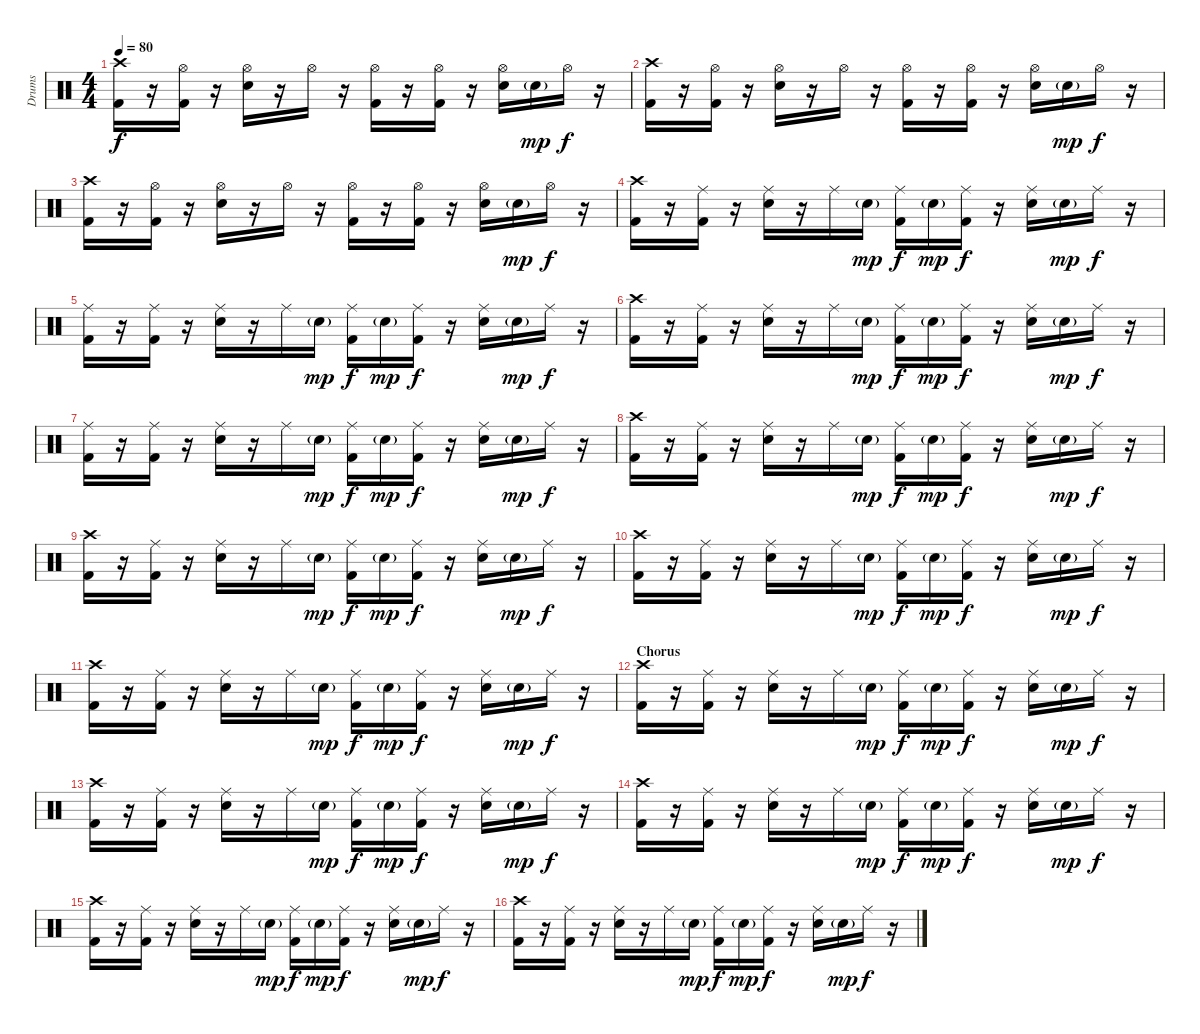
\track ("Drums" "Drums") {instrument percussion}
\staff {score}
\articulation defaults
\ts (4 4)
\tempo 80
\clef neutral
\ks c
("Crash high (hit)" "Kick (hit) 2").16{dy f} r.16 ("Hi-Hat (open)" "Kick (hit) 2").16 r.16 ("Hi-Hat (open)" "Electric Snare (hit)").16 r.16 "Hi-Hat (open)".16 r.16 ("Hi-Hat (open)" "Kick (hit) 2").16 r.16 ("Hi-Hat (open)" "Kick (hit) 2").16 r.16 ("Hi-Hat (open)" "Electric Snare (hit)").16 "Electric Snare (hit)"{g}.16{dy mp} "Hi-Hat (open)".16{dy f} r.16 |
("Crash high (hit)" "Kick (hit) 2").16 r.16 ("Hi-Hat (open)" "Kick (hit) 2").16 r.16 ("Hi-Hat (open)" "Electric Snare (hit)").16 r.16 "Hi-Hat (open)".16 r.16 ("Hi-Hat (open)" "Kick (hit) 2").16 r.16 ("Hi-Hat (open)" "Kick (hit) 2").16 r.16 ("Hi-Hat (open)" "Electric Snare (hit)").16 "Electric Snare (hit)"{g}.16{dy mp} "Hi-Hat (open)".16{dy f} r.16 |
("Crash high (hit)" "Kick (hit) 2").16 r.16 ("Hi-Hat (open)" "Kick (hit) 2").16 r.16 ("Hi-Hat (open)" "Electric Snare (hit)").16 r.16 "Hi-Hat (open)".16 r.16 ("Hi-Hat (open)" "Kick (hit) 2").16 r.16 ("Hi-Hat (open)" "Kick (hit) 2").16 r.16 ("Hi-Hat (open)" "Electric Snare (hit)").16 "Electric Snare (hit)"{g}.16{dy mp} "Hi-Hat (open)".16{dy f} r.16 |
("Crash high (hit)" "Kick (hit) 2").16 r.16 ("Ride (middle)" "Kick (hit) 2").16 r.16 ("Ride (middle)" "Electric Snare (hit)").16 r.16 "Ride (middle)".16 "Electric Snare (hit)"{g}.16{dy mp} ("Ride (middle)" "Kick (hit) 2").16{dy f} "Electric Snare (hit)"{g}.16{dy mp} ("Ride (middle)" "Kick (hit) 2").16{dy f} r.16 ("Ride (middle)" "Electric Snare (hit)").16 "Electric Snare (hit)"{g}.16{dy mp} "Ride (middle)".16{dy f} r.16 |
("Ride (middle)" "Kick (hit) 2").16 r.16 ("Ride (middle)" "Kick (hit) 2").16 r.16 ("Ride (middle)" "Electric Snare (hit)").16 r.16 "Ride (middle)".16 "Electric Snare (hit)"{g}.16{dy mp} ("Ride (middle)" "Kick (hit) 2").16{dy f} "Electric Snare (hit)"{g}.16{dy mp} ("Ride (middle)" "Kick (hit) 2").16{dy f} r.16 ("Ride (middle)" "Electric Snare (hit)").16 "Electric Snare (hit)"{g}.16{dy mp} "Ride (middle)".16{dy f} r.16 |
("Crash high (hit)" "Kick (hit) 2").16 r.16 ("Ride (middle)" "Kick (hit) 2").16 r.16 ("Ride (middle)" "Electric Snare (hit)").16 r.16 "Ride (middle)".16 "Electric Snare (hit)"{g}.16{dy mp} ("Ride (middle)" "Kick (hit) 2").16{dy f} "Electric Snare (hit)"{g}.16{dy mp} ("Ride (middle)" "Kick (hit) 2").16{dy f} r.16 ("Ride (middle)" "Electric Snare (hit)").16 "Electric Snare (hit)"{g}.16{dy mp} "Ride (middle)".16{dy f} r.16 |
("Ride (middle)" "Kick (hit) 2").16 r.16 ("Ride (middle)" "Kick (hit) 2").16 r.16 ("Ride (middle)" "Electric Snare (hit)").16 r.16 "Ride (middle)".16 "Electric Snare (hit)"{g}.16{dy mp} ("Ride (middle)" "Kick (hit) 2").16{dy f} "Electric Snare (hit)"{g}.16{dy mp} ("Ride (middle)" "Kick (hit) 2").16{dy f} r.16 ("Ride (middle)" "Electric Snare (hit)").16 "Electric Snare (hit)"{g}.16{dy mp} "Ride (middle)".16{dy f} r.16 |
("Crash high (hit)" "Kick (hit) 2").16 r.16 ("Ride (middle)" "Kick (hit) 2").16 r.16 ("Ride (middle)" "Electric Snare (hit)").16 r.16 "Ride (middle)".16 "Electric Snare (hit)"{g}.16{dy mp} ("Ride (middle)" "Kick (hit) 2").16{dy f} "Electric Snare (hit)"{g}.16{dy mp} ("Ride (middle)" "Kick (hit) 2").16{dy f} r.16 ("Ride (middle)" "Electric Snare (hit)").16 "Electric Snare (hit)"{g}.16{dy mp} "Ride (middle)".16{dy f} r.16 |
("Crash high (hit)" "Kick (hit) 2").16 r.16 ("Ride (middle)" "Kick (hit) 2").16 r.16 ("Ride (middle)" "Electric Snare (hit)").16 r.16 "Ride (middle)".16 "Electric Snare (hit)"{g}.16{dy mp} ("Ride (middle)" "Kick (hit) 2").16{dy f} "Electric Snare (hit)"{g}.16{dy mp} ("Ride (middle)" "Kick (hit) 2").16{dy f} r.16 ("Ride (middle)" "Electric Snare (hit)").16 "Electric Snare (hit)"{g}.16{dy mp} "Ride (middle)".16{dy f} r.16 |
("Crash high (hit)" "Kick (hit) 2").16 r.16 ("Ride (middle)" "Kick (hit) 2").16 r.16 ("Ride (middle)" "Electric Snare (hit)").16 r.16 "Ride (middle)".16 "Electric Snare (hit)"{g}.16{dy mp} ("Ride (middle)" "Kick (hit) 2").16{dy f} "Electric Snare (hit)"{g}.16{dy mp} ("Ride (middle)" "Kick (hit) 2").16{dy f} r.16 ("Ride (middle)" "Electric Snare (hit)").16 "Electric Snare (hit)"{g}.16{dy mp} "Ride (middle)".16{dy f} r.16 |
("Crash high (hit)" "Kick (hit) 2").16 r.16 ("Ride (middle)" "Kick (hit) 2").16 r.16 ("Ride (middle)" "Electric Snare (hit)").16 r.16 "Ride (middle)".16 "Electric Snare (hit)"{g}.16{dy mp} ("Ride (middle)" "Kick (hit) 2").16{dy f} "Electric Snare (hit)"{g}.16{dy mp} ("Ride (middle)" "Kick (hit) 2").16{dy f} r.16 ("Ride (middle)" "Electric Snare (hit)").16 "Electric Snare (hit)"{g}.16{dy mp} "Ride (middle)".16{dy f} r.16 |
\section ("" "Chorus")
("Crash high (hit)" "Kick (hit) 2").16 r.16 ("Ride (middle)" "Kick (hit) 2").16 r.16 ("Ride (middle)" "Electric Snare (hit)").16 r.16 "Ride (middle)".16 "Electric Snare (hit)"{g}.16{dy mp} ("Ride (middle)" "Kick (hit) 2").16{dy f} "Electric Snare (hit)"{g}.16{dy mp} ("Ride (middle)" "Kick (hit) 2").16{dy f} r.16 ("Ride (middle)" "Electric Snare (hit)").16 "Electric Snare (hit)"{g}.16{dy mp} "Ride (middle)".16{dy f} r.16 |
("Crash high (hit)" "Kick (hit) 2").16 r.16 ("Ride (middle)" "Kick (hit) 2").16 r.16 ("Ride (middle)" "Electric Snare (hit)").16 r.16 "Ride (middle)".16 "Electric Snare (hit)"{g}.16{dy mp} ("Ride (middle)" "Kick (hit) 2").16{dy f} "Electric Snare (hit)"{g}.16{dy mp} ("Ride (middle)" "Kick (hit) 2").16{dy f} r.16 ("Ride (middle)" "Electric Snare (hit)").16 "Electric Snare (hit)"{g}.16{dy mp} "Ride (middle)".16{dy f} r.16 |
("Crash high (hit)" "Kick (hit) 2").16 r.16 ("Ride (middle)" "Kick (hit) 2").16 r.16 ("Ride (middle)" "Electric Snare (hit)").16 r.16 "Ride (middle)".16 "Electric Snare (hit)"{g}.16{dy mp} ("Ride (middle)" "Kick (hit) 2").16{dy f} "Electric Snare (hit)"{g}.16{dy mp} ("Ride (middle)" "Kick (hit) 2").16{dy f} r.16 ("Ride (middle)" "Electric Snare (hit)").16 "Electric Snare (hit)"{g}.16{dy mp} "Ride (middle)".16{dy f} r.16 |
("Crash high (hit)" "Kick (hit) 2").16 r.16 ("Ride (middle)" "Kick (hit) 2").16 r.16 ("Ride (middle)" "Electric Snare (hit)").16 r.16 "Ride (middle)".16 "Electric Snare (hit)"{g}.16{dy mp} ("Ride (middle)" "Kick (hit) 2").16{dy f} "Electric Snare (hit)"{g}.16{dy mp} ("Ride (middle)" "Kick (hit) 2").16{dy f} r.16 ("Ride (middle)" "Electric Snare (hit)").16 "Electric Snare (hit)"{g}.16{dy mp} "Ride (middle)".16{dy f} r.16 |
("Crash high (hit)" "Kick (hit) 2").16 r.16 ("Ride (middle)" "Kick (hit) 2").16 r.16 ("Ride (middle)" "Electric Snare (hit)").16 r.16 "Ride (middle)".16 "Electric Snare (hit)"{g}.16{dy mp} ("Ride (middle)" "Kick (hit) 2").16{dy f} "Electric Snare (hit)"{g}.16{dy mp} ("Ride (middle)" "Kick (hit) 2").16{dy f} r.16 ("Ride (middle)" "Electric Snare (hit)").16 "Electric Snare (hit)"{g}.16{dy mp} "Ride (middle)".16{dy f} r.16
